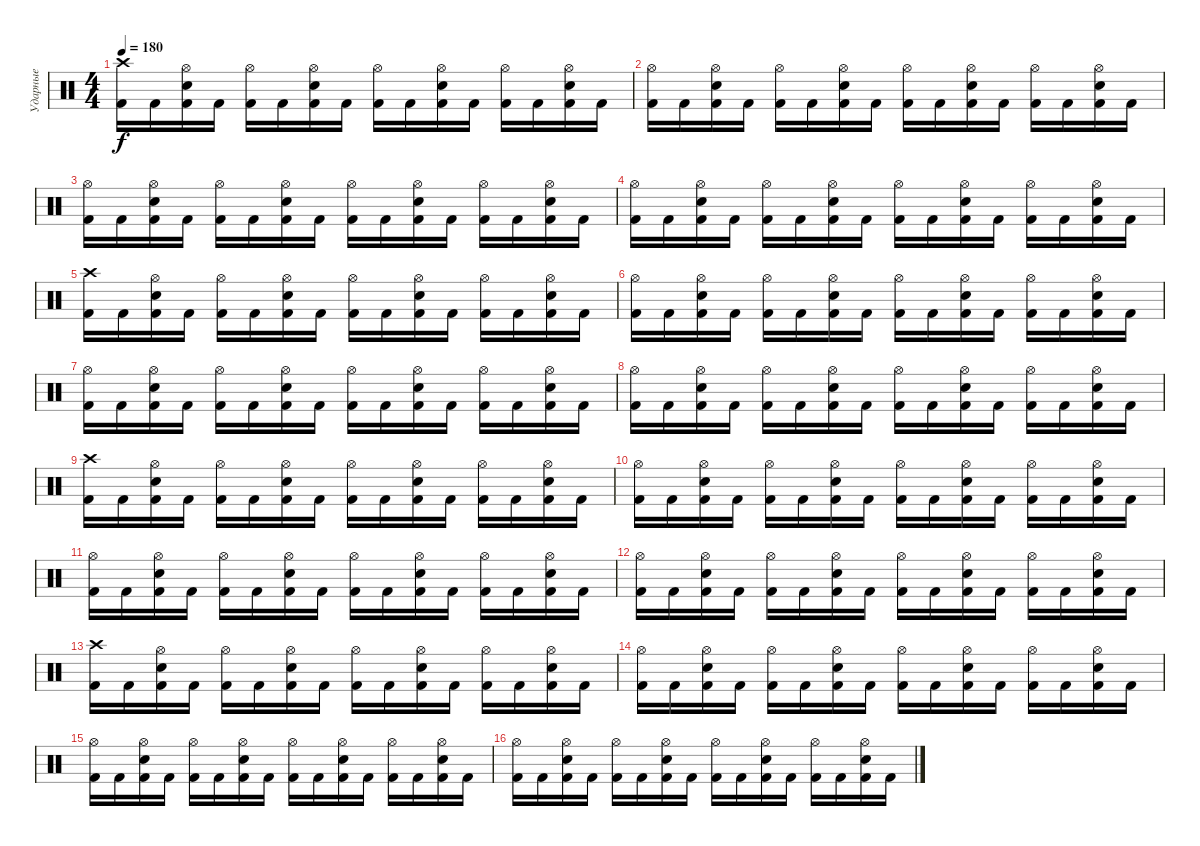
\track ("Ударные" "Ударные") {instrument percussion}
\staff {score}
\articulation defaults
\ts (4 4)
\tempo 180
\clef neutral
\ks c
("Crash high (hit)" "Kick (hit) 2").16{dy f} "Kick (hit) 2".16 ("Hi-Hat (open)" "Electric Snare (hit)" "Kick (hit) 2").16 "Kick (hit) 2".16 ("Hi-Hat (open)" "Kick (hit) 2").16 "Kick (hit) 2".16 ("Hi-Hat (open)" "Electric Snare (hit)" "Kick (hit) 2").16 "Kick (hit) 2".16 ("Hi-Hat (open)" "Kick (hit) 2").16 "Kick (hit) 2".16 ("Hi-Hat (open)" "Electric Snare (hit)" "Kick (hit) 2").16 "Kick (hit) 2".16 ("Hi-Hat (open)" "Kick (hit) 2").16 "Kick (hit) 2".16 ("Hi-Hat (open)" "Electric Snare (hit)" "Kick (hit) 2").16 "Kick (hit) 2".16 |
("Hi-Hat (open)" "Kick (hit) 2").16 "Kick (hit) 2".16 ("Hi-Hat (open)" "Electric Snare (hit)" "Kick (hit) 2").16 "Kick (hit) 2".16 ("Hi-Hat (open)" "Kick (hit) 2").16 "Kick (hit) 2".16 ("Hi-Hat (open)" "Electric Snare (hit)" "Kick (hit) 2").16 "Kick (hit) 2".16 ("Hi-Hat (open)" "Kick (hit) 2").16 "Kick (hit) 2".16 ("Hi-Hat (open)" "Electric Snare (hit)" "Kick (hit) 2").16 "Kick (hit) 2".16 ("Hi-Hat (open)" "Kick (hit) 2").16 "Kick (hit) 2".16 ("Hi-Hat (open)" "Electric Snare (hit)" "Kick (hit) 2").16 "Kick (hit) 2".16 |
("Hi-Hat (open)" "Kick (hit) 2").16 "Kick (hit) 2".16 ("Hi-Hat (open)" "Electric Snare (hit)" "Kick (hit) 2").16 "Kick (hit) 2".16 ("Hi-Hat (open)" "Kick (hit) 2").16 "Kick (hit) 2".16 ("Hi-Hat (open)" "Electric Snare (hit)" "Kick (hit) 2").16 "Kick (hit) 2".16 ("Hi-Hat (open)" "Kick (hit) 2").16 "Kick (hit) 2".16 ("Hi-Hat (open)" "Electric Snare (hit)" "Kick (hit) 2").16 "Kick (hit) 2".16 ("Hi-Hat (open)" "Kick (hit) 2").16 "Kick (hit) 2".16 ("Hi-Hat (open)" "Electric Snare (hit)" "Kick (hit) 2").16 "Kick (hit) 2".16 |
("Hi-Hat (open)" "Kick (hit) 2").16 "Kick (hit) 2".16 ("Hi-Hat (open)" "Electric Snare (hit)" "Kick (hit) 2").16 "Kick (hit) 2".16 ("Hi-Hat (open)" "Kick (hit) 2").16 "Kick (hit) 2".16 ("Hi-Hat (open)" "Electric Snare (hit)" "Kick (hit) 2").16 "Kick (hit) 2".16 ("Hi-Hat (open)" "Kick (hit) 2").16 "Kick (hit) 2".16 ("Hi-Hat (open)" "Electric Snare (hit)" "Kick (hit) 2").16 "Kick (hit) 2".16 ("Hi-Hat (open)" "Kick (hit) 2").16 "Kick (hit) 2".16 ("Hi-Hat (open)" "Electric Snare (hit)" "Kick (hit) 2").16 "Kick (hit) 2".16 |
("Crash high (hit)" "Kick (hit) 2").16 "Kick (hit) 2".16 ("Hi-Hat (open)" "Electric Snare (hit)" "Kick (hit) 2").16 "Kick (hit) 2".16 ("Hi-Hat (open)" "Kick (hit) 2").16 "Kick (hit) 2".16 ("Hi-Hat (open)" "Electric Snare (hit)" "Kick (hit) 2").16 "Kick (hit) 2".16 ("Hi-Hat (open)" "Kick (hit) 2").16 "Kick (hit) 2".16 ("Hi-Hat (open)" "Electric Snare (hit)" "Kick (hit) 2").16 "Kick (hit) 2".16 ("Hi-Hat (open)" "Kick (hit) 2").16 "Kick (hit) 2".16 ("Hi-Hat (open)" "Electric Snare (hit)" "Kick (hit) 2").16 "Kick (hit) 2".16 |
("Hi-Hat (open)" "Kick (hit) 2").16 "Kick (hit) 2".16 ("Hi-Hat (open)" "Electric Snare (hit)" "Kick (hit) 2").16 "Kick (hit) 2".16 ("Hi-Hat (open)" "Kick (hit) 2").16 "Kick (hit) 2".16 ("Hi-Hat (open)" "Electric Snare (hit)" "Kick (hit) 2").16 "Kick (hit) 2".16 ("Hi-Hat (open)" "Kick (hit) 2").16 "Kick (hit) 2".16 ("Hi-Hat (open)" "Electric Snare (hit)" "Kick (hit) 2").16 "Kick (hit) 2".16 ("Hi-Hat (open)" "Kick (hit) 2").16 "Kick (hit) 2".16 ("Hi-Hat (open)" "Electric Snare (hit)" "Kick (hit) 2").16 "Kick (hit) 2".16 |
("Hi-Hat (open)" "Kick (hit) 2").16 "Kick (hit) 2".16 ("Hi-Hat (open)" "Electric Snare (hit)" "Kick (hit) 2").16 "Kick (hit) 2".16 ("Hi-Hat (open)" "Kick (hit) 2").16 "Kick (hit) 2".16 ("Hi-Hat (open)" "Electric Snare (hit)" "Kick (hit) 2").16 "Kick (hit) 2".16 ("Hi-Hat (open)" "Kick (hit) 2").16 "Kick (hit) 2".16 ("Hi-Hat (open)" "Electric Snare (hit)" "Kick (hit) 2").16 "Kick (hit) 2".16 ("Hi-Hat (open)" "Kick (hit) 2").16 "Kick (hit) 2".16 ("Hi-Hat (open)" "Electric Snare (hit)" "Kick (hit) 2").16 "Kick (hit) 2".16 |
("Hi-Hat (open)" "Kick (hit) 2").16 "Kick (hit) 2".16 ("Hi-Hat (open)" "Electric Snare (hit)" "Kick (hit) 2").16 "Kick (hit) 2".16 ("Hi-Hat (open)" "Kick (hit) 2").16 "Kick (hit) 2".16 ("Hi-Hat (open)" "Electric Snare (hit)" "Kick (hit) 2").16 "Kick (hit) 2".16 ("Hi-Hat (open)" "Kick (hit) 2").16 "Kick (hit) 2".16 ("Hi-Hat (open)" "Electric Snare (hit)" "Kick (hit) 2").16 "Kick (hit) 2".16 ("Hi-Hat (open)" "Kick (hit) 2").16 "Kick (hit) 2".16 ("Hi-Hat (open)" "Electric Snare (hit)" "Kick (hit) 2").16 "Kick (hit) 2".16 |
("Crash high (hit)" "Kick (hit) 2").16 "Kick (hit) 2".16 ("Hi-Hat (open)" "Electric Snare (hit)" "Kick (hit) 2").16 "Kick (hit) 2".16 ("Hi-Hat (open)" "Kick (hit) 2").16 "Kick (hit) 2".16 ("Hi-Hat (open)" "Electric Snare (hit)" "Kick (hit) 2").16 "Kick (hit) 2".16 ("Hi-Hat (open)" "Kick (hit) 2").16 "Kick (hit) 2".16 ("Hi-Hat (open)" "Electric Snare (hit)" "Kick (hit) 2").16 "Kick (hit) 2".16 ("Hi-Hat (open)" "Kick (hit) 2").16 "Kick (hit) 2".16 ("Hi-Hat (open)" "Electric Snare (hit)" "Kick (hit) 2").16 "Kick (hit) 2".16 |
("Hi-Hat (open)" "Kick (hit) 2").16 "Kick (hit) 2".16 ("Hi-Hat (open)" "Electric Snare (hit)" "Kick (hit) 2").16 "Kick (hit) 2".16 ("Hi-Hat (open)" "Kick (hit) 2").16 "Kick (hit) 2".16 ("Hi-Hat (open)" "Electric Snare (hit)" "Kick (hit) 2").16 "Kick (hit) 2".16 ("Hi-Hat (open)" "Kick (hit) 2").16 "Kick (hit) 2".16 ("Hi-Hat (open)" "Electric Snare (hit)" "Kick (hit) 2").16 "Kick (hit) 2".16 ("Hi-Hat (open)" "Kick (hit) 2").16 "Kick (hit) 2".16 ("Hi-Hat (open)" "Electric Snare (hit)" "Kick (hit) 2").16 "Kick (hit) 2".16 |
("Hi-Hat (open)" "Kick (hit) 2").16 "Kick (hit) 2".16 ("Hi-Hat (open)" "Electric Snare (hit)" "Kick (hit) 2").16 "Kick (hit) 2".16 ("Hi-Hat (open)" "Kick (hit) 2").16 "Kick (hit) 2".16 ("Hi-Hat (open)" "Electric Snare (hit)" "Kick (hit) 2").16 "Kick (hit) 2".16 ("Hi-Hat (open)" "Kick (hit) 2").16 "Kick (hit) 2".16 ("Hi-Hat (open)" "Electric Snare (hit)" "Kick (hit) 2").16 "Kick (hit) 2".16 ("Hi-Hat (open)" "Kick (hit) 2").16 "Kick (hit) 2".16 ("Hi-Hat (open)" "Electric Snare (hit)" "Kick (hit) 2").16 "Kick (hit) 2".16 |
("Hi-Hat (open)" "Kick (hit) 2").16 "Kick (hit) 2".16 ("Hi-Hat (open)" "Electric Snare (hit)" "Kick (hit) 2").16 "Kick (hit) 2".16 ("Hi-Hat (open)" "Kick (hit) 2").16 "Kick (hit) 2".16 ("Hi-Hat (open)" "Electric Snare (hit)" "Kick (hit) 2").16 "Kick (hit) 2".16 ("Hi-Hat (open)" "Kick (hit) 2").16 "Kick (hit) 2".16 ("Hi-Hat (open)" "Electric Snare (hit)" "Kick (hit) 2").16 "Kick (hit) 2".16 ("Hi-Hat (open)" "Kick (hit) 2").16 "Kick (hit) 2".16 ("Hi-Hat (open)" "Electric Snare (hit)" "Kick (hit) 2").16 "Kick (hit) 2".16 |
("Crash high (hit)" "Kick (hit) 2").16 "Kick (hit) 2".16 ("Hi-Hat (open)" "Electric Snare (hit)" "Kick (hit) 2").16 "Kick (hit) 2".16 ("Hi-Hat (open)" "Kick (hit) 2").16 "Kick (hit) 2".16 ("Hi-Hat (open)" "Electric Snare (hit)" "Kick (hit) 2").16 "Kick (hit) 2".16 ("Hi-Hat (open)" "Kick (hit) 2").16 "Kick (hit) 2".16 ("Hi-Hat (open)" "Electric Snare (hit)" "Kick (hit) 2").16 "Kick (hit) 2".16 ("Hi-Hat (open)" "Kick (hit) 2").16 "Kick (hit) 2".16 ("Hi-Hat (open)" "Electric Snare (hit)" "Kick (hit) 2").16 "Kick (hit) 2".16 |
("Hi-Hat (open)" "Kick (hit) 2").16 "Kick (hit) 2".16 ("Hi-Hat (open)" "Electric Snare (hit)" "Kick (hit) 2").16 "Kick (hit) 2".16 ("Hi-Hat (open)" "Kick (hit) 2").16 "Kick (hit) 2".16 ("Hi-Hat (open)" "Electric Snare (hit)" "Kick (hit) 2").16 "Kick (hit) 2".16 ("Hi-Hat (open)" "Kick (hit) 2").16 "Kick (hit) 2".16 ("Hi-Hat (open)" "Electric Snare (hit)" "Kick (hit) 2").16 "Kick (hit) 2".16 ("Hi-Hat (open)" "Kick (hit) 2").16 "Kick (hit) 2".16 ("Hi-Hat (open)" "Electric Snare (hit)" "Kick (hit) 2").16 "Kick (hit) 2".16 |
("Hi-Hat (open)" "Kick (hit) 2").16 "Kick (hit) 2".16 ("Hi-Hat (open)" "Electric Snare (hit)" "Kick (hit) 2").16 "Kick (hit) 2".16 ("Hi-Hat (open)" "Kick (hit) 2").16 "Kick (hit) 2".16 ("Hi-Hat (open)" "Electric Snare (hit)" "Kick (hit) 2").16 "Kick (hit) 2".16 ("Hi-Hat (open)" "Kick (hit) 2").16 "Kick (hit) 2".16 ("Hi-Hat (open)" "Electric Snare (hit)" "Kick (hit) 2").16 "Kick (hit) 2".16 ("Hi-Hat (open)" "Kick (hit) 2").16 "Kick (hit) 2".16 ("Hi-Hat (open)" "Electric Snare (hit)" "Kick (hit) 2").16 "Kick (hit) 2".16 |
("Hi-Hat (open)" "Kick (hit) 2").16 "Kick (hit) 2".16 ("Hi-Hat (open)" "Electric Snare (hit)" "Kick (hit) 2").16 "Kick (hit) 2".16 ("Hi-Hat (open)" "Kick (hit) 2").16 "Kick (hit) 2".16 ("Hi-Hat (open)" "Electric Snare (hit)" "Kick (hit) 2").16 "Kick (hit) 2".16 ("Hi-Hat (open)" "Kick (hit) 2").16 "Kick (hit) 2".16 ("Hi-Hat (open)" "Electric Snare (hit)" "Kick (hit) 2").16 "Kick (hit) 2".16 ("Hi-Hat (open)" "Kick (hit) 2").16 "Kick (hit) 2".16 ("Hi-Hat (open)" "Electric Snare (hit)" "Kick (hit) 2").16 "Kick (hit) 2".16
